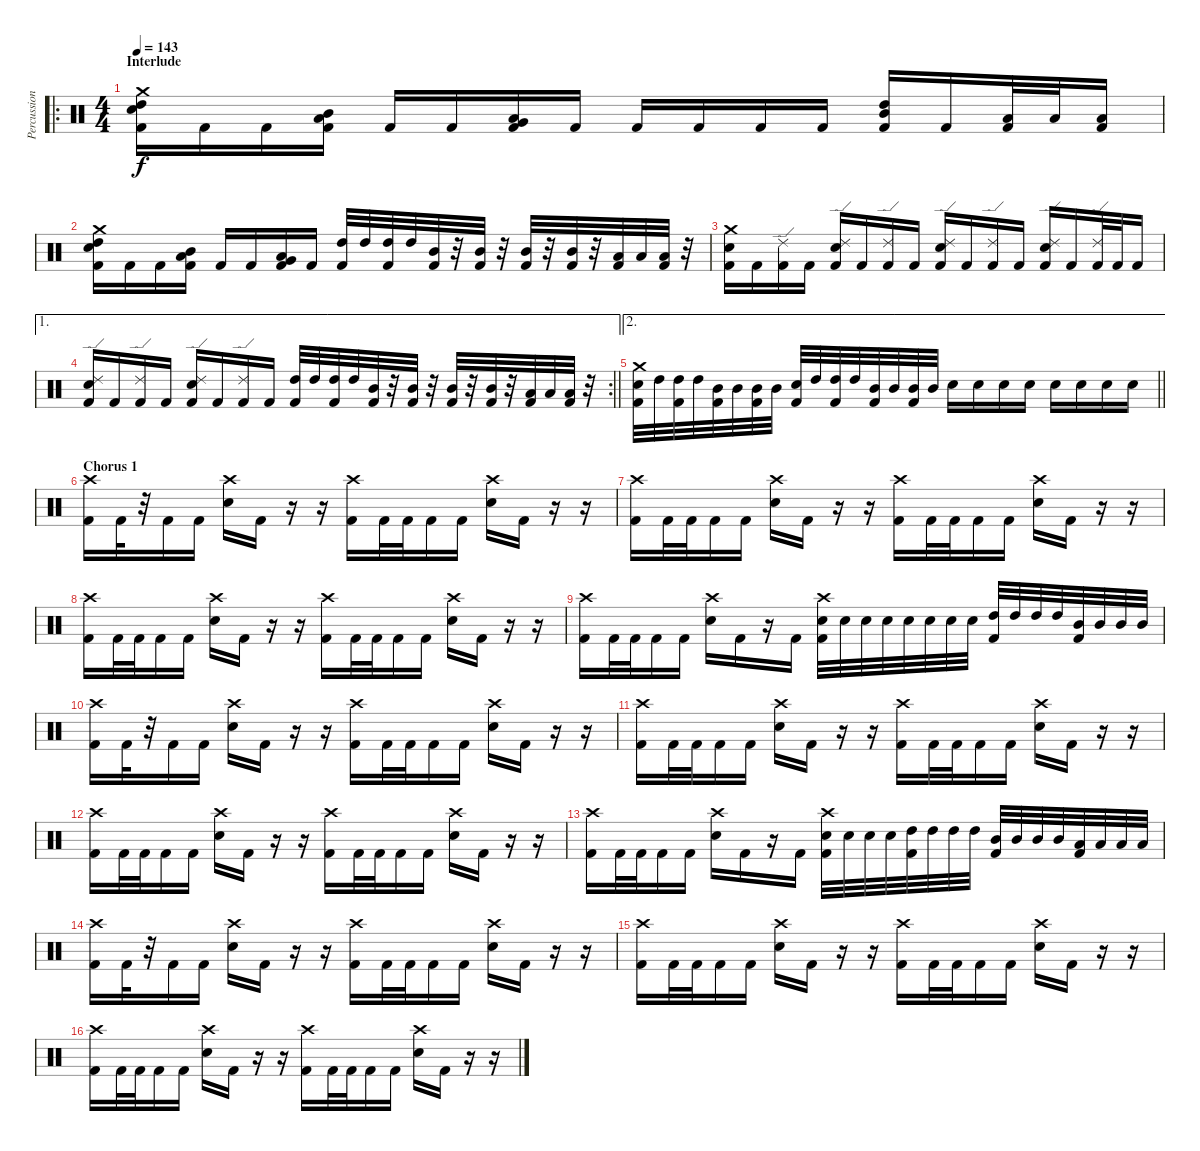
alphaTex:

\track ("Percussion" "Percussion") {instrument percussion}
\staff {score}
\articulation defaults
\ro
\ts (4 4)
\section ("" "Interlude")
\tempo 143
\clef neutral
\ks c
("Crash medium (hit)" "High Tom (hit)" "Electric Snare (hit)" "Kick (hit) 2").16{dy f} "Kick (hit) 2".16 "Kick (hit) 2".16 ("Mid Tom (hit)" "Low Tom (hit)" "Kick (hit) 2").16 "Kick (hit) 2".16 "Kick (hit) 2".16 ("Low Tom (hit)" "Very Low Tom (hit)" "Kick (hit) 2").16 "Kick (hit) 2".16 "Kick (hit) 2".16 "Kick (hit) 2".16 "Kick (hit) 2".16 "Kick (hit) 2".16 ("High Tom (hit)" "Mid Tom (hit)" "Kick (hit) 2").16 "Kick (hit) 2".16 ("Low Tom (hit)" "Kick (hit) 2").32 "Low Tom (hit)".32 ("Low Tom (hit)" "Kick (hit) 2").16 |
("Crash medium (hit)" "High Tom (hit)" "Electric Snare (hit)" "Kick (hit) 2").16 "Kick (hit) 2".16 "Kick (hit) 2".16 ("Mid Tom (hit)" "Low Tom (hit)" "Kick (hit) 2").16 "Kick (hit) 2".16 "Kick (hit) 2".16 ("Low Tom (hit)" "Very Low Tom (hit)" "Kick (hit) 2").16 "Kick (hit) 2".16 ("High Tom (hit)" "Kick (hit) 2").32 "High Tom (hit)".32 ("High Tom (hit)" "Kick (hit) 2").32 "High Tom (hit)".32 ("Mid Tom (hit)" "Kick (hit) 2").32 r.32 ("Mid Tom (hit)" "Kick (hit) 2").32 r.32 ("Mid Tom (hit)" "Kick (hit) 2").32 r.32 ("Mid Tom (hit)" "Kick (hit) 2").32 r.32 ("Low Tom (hit)" "Kick (hit) 2").32 "Low Tom (hit)".32 ("Low Tom (hit)" "Kick (hit) 2").32 r.32 |
("Crash medium (hit)" "Electric Snare (hit)" "Kick (hit) 2").16 "Kick (hit) 2".16 ("Ride (edge) 2" "Kick (hit) 2").16 "Kick (hit) 2".16 ("Ride (edge) 2" "Electric Snare (hit)" "Kick (hit) 2").16 "Kick (hit) 2".16 ("Ride (edge) 2" "Kick (hit) 2").16 "Kick (hit) 2".16 ("Ride (edge) 2" "Electric Snare (hit)" "Kick (hit) 2").16 "Kick (hit) 2".16 ("Ride (edge) 2" "Kick (hit) 2").16 "Kick (hit) 2".16 ("Ride (edge) 2" "Electric Snare (hit)" "Kick (hit) 2").16 "Kick (hit) 2".16 ("Ride (edge) 2" "Kick (hit) 2").32 "Kick (hit) 2".32 "Kick (hit) 2".16 |
\ae 1
\rc 2
\barLineRight lightlight
("Ride (edge) 2" "Electric Snare (hit)" "Kick (hit) 2").16 "Kick (hit) 2".16 ("Ride (edge) 2" "Kick (hit) 2").16 "Kick (hit) 2".16 ("Ride (edge) 2" "Electric Snare (hit)" "Kick (hit) 2").16 "Kick (hit) 2".16 ("Ride (edge) 2" "Kick (hit) 2").16 "Kick (hit) 2".16 ("High Tom (hit)" "Kick (hit) 2").32 "High Tom (hit)".32 ("High Tom (hit)" "Kick (hit) 2").32 "High Tom (hit)".32 ("Mid Tom (hit)" "Kick (hit) 2").32 r.32 ("Mid Tom (hit)" "Kick (hit) 2").32 r.32 ("Mid Tom (hit)" "Kick (hit) 2").32 r.32 ("Mid Tom (hit)" "Kick (hit) 2").32 r.32 ("Low Tom (hit)" "Kick (hit) 2").32 "Low Tom (hit)".32 ("Low Tom (hit)" "Kick (hit) 2").32 r.32 |
\ae 2
\barLineRight lightlight
("Crash medium (hit)" "Electric Snare (hit)" "Kick (hit) 2").32 "High Tom (hit)".32 ("High Tom (hit)" "Kick (hit) 2").32 "High Tom (hit)".32 ("Mid Tom (hit)" "Kick (hit) 2").32 "Mid Tom (hit)".32 ("Mid Tom (hit)" "Kick (hit) 2").32 "Mid Tom (hit)".32 ("Electric Snare (hit)" "Kick (hit) 2").32 "High Tom (hit)".32 ("High Tom (hit)" "Kick (hit) 2").32 "High Tom (hit)".32 ("Mid Tom (hit)" "Kick (hit) 2").32 "Mid Tom (hit)".32 ("Mid Tom (hit)" "Kick (hit) 2").32 "Mid Tom (hit)".32 "Electric Snare (hit)".16 "Electric Snare (hit)".16 "Electric Snare (hit)".16 "Electric Snare (hit)".16 "Electric Snare (hit)".16 "Electric Snare (hit)".16 "Electric Snare (hit)".16 "Electric Snare (hit)".16 |
\section ("" "Chorus 1")
("Crash high (hit)" "Kick (hit) 2").16 "Kick (hit) 2".32 r.32 "Kick (hit) 2".16 "Kick (hit) 2".16 ("Crash high (hit)" "Electric Snare (hit)").16 "Kick (hit) 2".16 r.16 r.16 ("Crash high (hit)" "Kick (hit) 2").16 "Kick (hit) 2".32 "Kick (hit) 2".32 "Kick (hit) 2".16 "Kick (hit) 2".16 ("Crash high (hit)" "Electric Snare (hit)").16 "Kick (hit) 2".16 r.16 r.16 |
("Crash high (hit)" "Kick (hit) 2").16 "Kick (hit) 2".32 "Kick (hit) 2".32 "Kick (hit) 2".16 "Kick (hit) 2".16 ("Crash high (hit)" "Electric Snare (hit)").16 "Kick (hit) 2".16 r.16 r.16 ("Crash high (hit)" "Kick (hit) 2").16 "Kick (hit) 2".32 "Kick (hit) 2".32 "Kick (hit) 2".16 "Kick (hit) 2".16 ("Crash high (hit)" "Electric Snare (hit)").16 "Kick (hit) 2".16 r.16 r.16 |
("Crash high (hit)" "Kick (hit) 2").16 "Kick (hit) 2".32 "Kick (hit) 2".32 "Kick (hit) 2".16 "Kick (hit) 2".16 ("Crash high (hit)" "Electric Snare (hit)").16 "Kick (hit) 2".16 r.16 r.16 ("Crash high (hit)" "Kick (hit) 2").16 "Kick (hit) 2".32 "Kick (hit) 2".32 "Kick (hit) 2".16 "Kick (hit) 2".16 ("Crash high (hit)" "Electric Snare (hit)").16 "Kick (hit) 2".16 r.16 r.16 |
("Crash high (hit)" "Kick (hit) 2").16 "Kick (hit) 2".32 "Kick (hit) 2".32 "Kick (hit) 2".16 "Kick (hit) 2".16 ("Crash high (hit)" "Electric Snare (hit)").16 "Kick (hit) 2".16 r.16 "Kick (hit) 2".16 ("Crash high (hit)" "Electric Snare (hit)" "Kick (hit) 2").32 "Electric Snare (hit)".32 "Electric Snare (hit)".32 "Electric Snare (hit)".32 "Electric Snare (hit)".32 "Electric Snare (hit)".32 "Electric Snare (hit)".32 "Electric Snare (hit)".32 ("High Tom (hit)" "Kick (hit) 2").32 "High Tom (hit)".32 "High Tom (hit)".32 "High Tom (hit)".32 ("Mid Tom (hit)" "Kick (hit) 2").32 "Mid Tom (hit)".32 "Mid Tom (hit)".32 "Mid Tom (hit)".32 |
("Crash high (hit)" "Kick (hit) 2").16 "Kick (hit) 2".32 r.32 "Kick (hit) 2".16 "Kick (hit) 2".16 ("Crash high (hit)" "Electric Snare (hit)").16 "Kick (hit) 2".16 r.16 r.16 ("Crash high (hit)" "Kick (hit) 2").16 "Kick (hit) 2".32 "Kick (hit) 2".32 "Kick (hit) 2".16 "Kick (hit) 2".16 ("Crash high (hit)" "Electric Snare (hit)").16 "Kick (hit) 2".16 r.16 r.16 |
("Crash high (hit)" "Kick (hit) 2").16 "Kick (hit) 2".32 "Kick (hit) 2".32 "Kick (hit) 2".16 "Kick (hit) 2".16 ("Crash high (hit)" "Electric Snare (hit)").16 "Kick (hit) 2".16 r.16 r.16 ("Crash high (hit)" "Kick (hit) 2").16 "Kick (hit) 2".32 "Kick (hit) 2".32 "Kick (hit) 2".16 "Kick (hit) 2".16 ("Crash high (hit)" "Electric Snare (hit)").16 "Kick (hit) 2".16 r.16 r.16 |
("Crash high (hit)" "Kick (hit) 2").16 "Kick (hit) 2".32 "Kick (hit) 2".32 "Kick (hit) 2".16 "Kick (hit) 2".16 ("Crash high (hit)" "Electric Snare (hit)").16 "Kick (hit) 2".16 r.16 r.16 ("Crash high (hit)" "Kick (hit) 2").16 "Kick (hit) 2".32 "Kick (hit) 2".32 "Kick (hit) 2".16 "Kick (hit) 2".16 ("Crash high (hit)" "Electric Snare (hit)").16 "Kick (hit) 2".16 r.16 r.16 |
("Crash high (hit)" "Kick (hit) 2").16 "Kick (hit) 2".32 "Kick (hit) 2".32 "Kick (hit) 2".16 "Kick (hit) 2".16 ("Crash high (hit)" "Electric Snare (hit)").16 "Kick (hit) 2".16 r.16 "Kick (hit) 2".16 ("Crash high (hit)" "Electric Snare (hit)" "Kick (hit) 2").32 "Electric Snare (hit)".32 "Electric Snare (hit)".32 "Electric Snare (hit)".32 ("High Tom (hit)" "Kick (hit) 2").32 "High Tom (hit)".32 "High Tom (hit)".32 "High Tom (hit)".32 ("Mid Tom (hit)" "Kick (hit) 2").32 "Mid Tom (hit)".32 "Mid Tom (hit)".32 "Mid Tom (hit)".32 ("Low Tom (hit)" "Kick (hit) 2").32 "Low Tom (hit)".32 "Low Tom (hit)".32 "Low Tom (hit)".32 |
("Crash high (hit)" "Kick (hit) 2").16 "Kick (hit) 2".32 r.32 "Kick (hit) 2".16 "Kick (hit) 2".16 ("Crash high (hit)" "Electric Snare (hit)").16 "Kick (hit) 2".16 r.16 r.16 ("Crash high (hit)" "Kick (hit) 2").16 "Kick (hit) 2".32 "Kick (hit) 2".32 "Kick (hit) 2".16 "Kick (hit) 2".16 ("Crash high (hit)" "Electric Snare (hit)").16 "Kick (hit) 2".16 r.16 r.16 |
("Crash high (hit)" "Kick (hit) 2").16 "Kick (hit) 2".32 "Kick (hit) 2".32 "Kick (hit) 2".16 "Kick (hit) 2".16 ("Crash high (hit)" "Electric Snare (hit)").16 "Kick (hit) 2".16 r.16 r.16 ("Crash high (hit)" "Kick (hit) 2").16 "Kick (hit) 2".32 "Kick (hit) 2".32 "Kick (hit) 2".16 "Kick (hit) 2".16 ("Crash high (hit)" "Electric Snare (hit)").16 "Kick (hit) 2".16 r.16 r.16 |
("Crash high (hit)" "Kick (hit) 2").16 "Kick (hit) 2".32 "Kick (hit) 2".32 "Kick (hit) 2".16 "Kick (hit) 2".16 ("Crash high (hit)" "Electric Snare (hit)").16 "Kick (hit) 2".16 r.16 r.16 ("Crash high (hit)" "Kick (hit) 2").16 "Kick (hit) 2".32 "Kick (hit) 2".32 "Kick (hit) 2".16 "Kick (hit) 2".16 ("Crash high (hit)" "Electric Snare (hit)").16 "Kick (hit) 2".16 r.16 r.16
